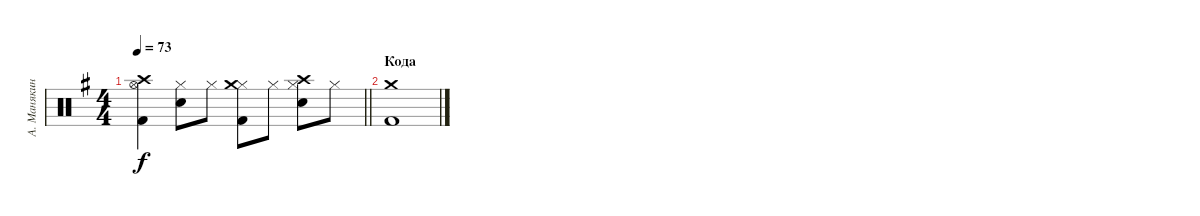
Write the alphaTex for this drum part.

\track ("А. Манякин" "А. Манякин") {instrument percussion}
\staff {score}
\articulation defaults
\ts (4 4)
\tempo 73
\clef neutral
\barLineRight lightlight
\ks g
("Kick (hit) 2" "Hi-Hat (open)" "Crash high (hit)").4{dy f} ("Electric Snare (hit)" "Hi-Hat (closed)").8 "Hi-Hat (closed)".8 ("Kick (hit) 2" "Hi-Hat (closed)" "Crash medium (hit)").8 "Hi-Hat (closed)".8 ("Electric Snare (hit)" "Hi-Hat (closed)" "Crash high (hit)").8 "Hi-Hat (closed)".8 |
\section ("" "Кода")
("Kick (hit) 2" "Crash medium (hit)").1
